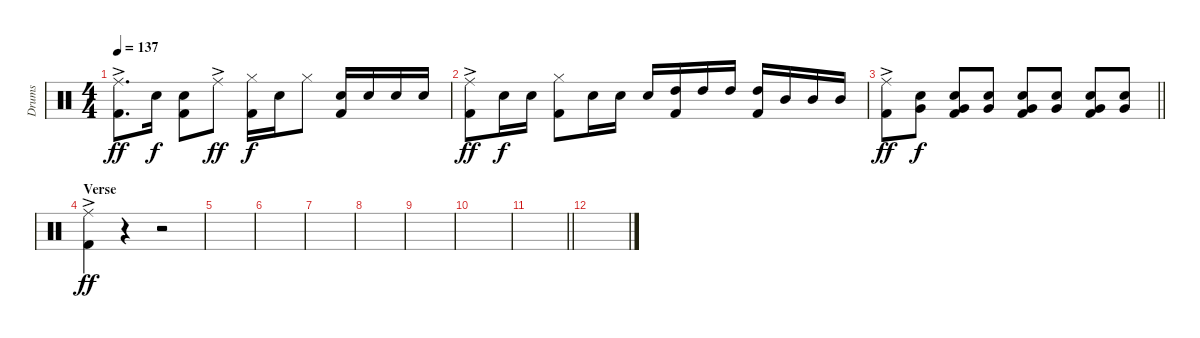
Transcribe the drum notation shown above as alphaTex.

\track ("Drums" "Drums") {instrument percussion}
\staff {score}
\articulation defaults
\ts (4 4)
\section ("" "")
\tempo 137
\clef neutral
\ks c
("Ride (middle)"{ac} "Kick (hit) 2").8{d dy ff} "Electric Snare (hit)".16{dy f} ("Electric Snare (hit)" "Kick (hit) 2").8 "Ride (middle)"{ac}.8{dy ff} ("Hi-Hat (closed)" "Kick (hit) 2").16{dy f} "Electric Snare (hit)".16 "Hi-Hat (closed)".8 ("Electric Snare (hit)" "Kick (hit) 2").16 "Electric Snare (hit)".16 "Electric Snare (hit)".16 "Electric Snare (hit)".16 |
("Ride (middle)"{ac} "Kick (hit) 2").8{dy ff} "Electric Snare (hit)".16{dy f} "Electric Snare (hit)".16 ("Hi-Hat (closed)" "Kick (hit) 2").8 "Electric Snare (hit)".16 "Electric Snare (hit)".16 "Electric Snare (hit)".16 ("High Tom (hit)" "Kick (hit) 2").16 "High Tom (hit)".16 "High Tom (hit)".16 ("High Tom (hit)" "Kick (hit) 2").16 "Mid Tom (hit)".16 "Mid Tom (hit)".16 "Mid Tom (hit)".16 |
\barLineRight lightlight
("Ride (middle)"{ac} "Kick (hit) 2").8{dy ff} ("Electric Snare (hit)" "Very Low Tom (hit)").8{dy f} ("Electric Snare (hit)" "Very Low Tom (hit)" "Kick (hit) 2").8 ("Electric Snare (hit)" "Very Low Tom (hit)").8 ("Electric Snare (hit)" "Very Low Tom (hit)" "Kick (hit) 2").8 ("Electric Snare (hit)" "Very Low Tom (hit)").8 ("Electric Snare (hit)" "Very Low Tom (hit)" "Kick (hit) 2").8 ("Electric Snare (hit)" "Very Low Tom (hit)").8 |
\section ("" "Verse")
("Ride (middle)"{ac} "Kick (hit) 2").4{dy ff} r.4 r.2 |
|
|
|
|
|
|
\barLineRight lightlight
|
\section ("" "")
